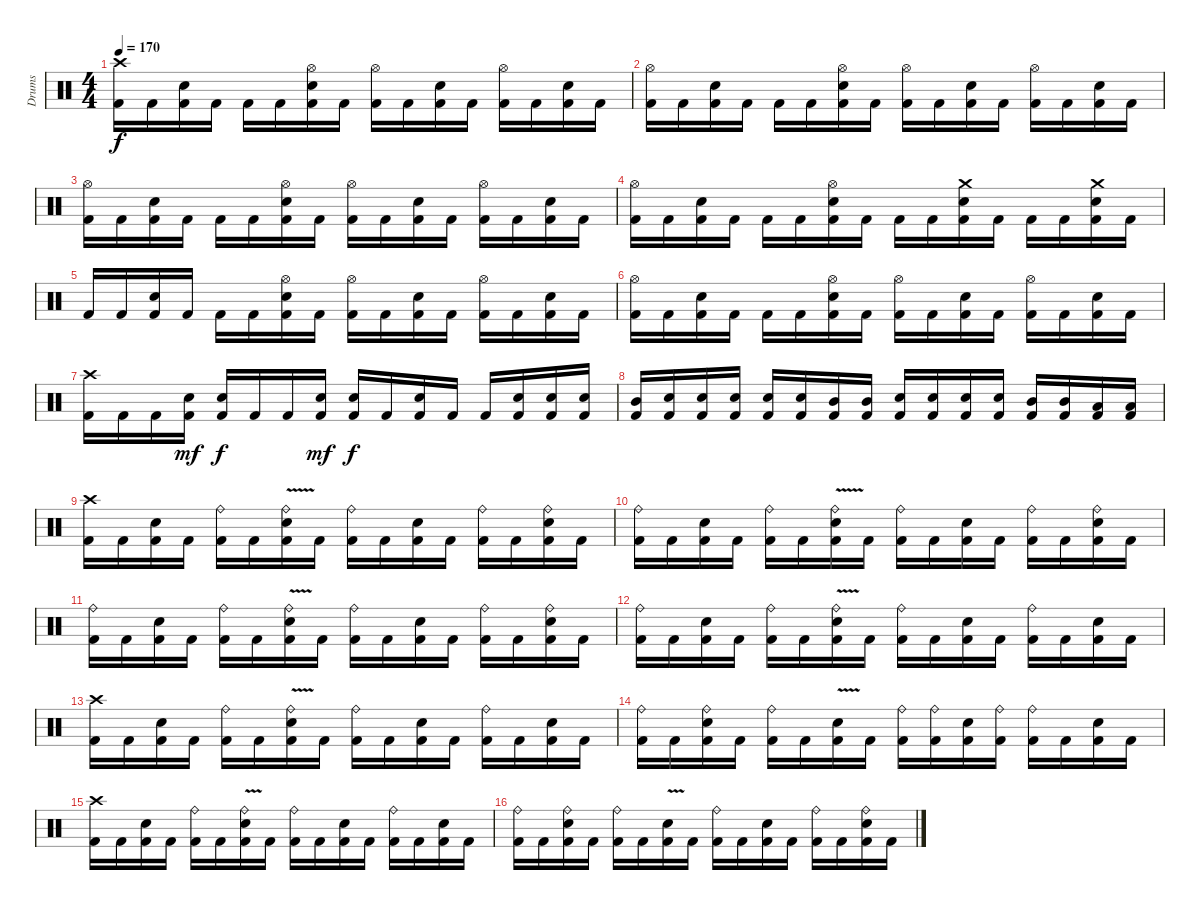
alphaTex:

\track ("Drums" "Drums") {instrument percussion}
\staff {score}
\articulation defaults
\ts (4 4)
\tempo 170
\clef neutral
\ks c
("Kick (hit) 2" "Crash high (hit)").16{dy f} "Kick (hit) 2".16 ("Kick (hit) 2" "Electric Snare (hit)").16 "Kick (hit) 2".16 "Kick (hit) 2".16 "Kick (hit) 2".16 ("Kick (hit) 2" "Electric Snare (hit)" "Hi-Hat (open)").16 "Kick (hit) 2".16 ("Kick (hit) 2" "Hi-Hat (open)").16 "Kick (hit) 2".16 ("Kick (hit) 2" "Electric Snare (hit)").16 "Kick (hit) 2".16 ("Kick (hit) 2" "Hi-Hat (open)").16 "Kick (hit) 2".16 ("Kick (hit) 2" "Electric Snare (hit)").16 "Kick (hit) 2".16 |
("Kick (hit) 2" "Hi-Hat (open)").16 "Kick (hit) 2".16 ("Kick (hit) 2" "Electric Snare (hit)").16 "Kick (hit) 2".16 "Kick (hit) 2".16 "Kick (hit) 2".16 ("Kick (hit) 2" "Electric Snare (hit)" "Hi-Hat (open)").16 "Kick (hit) 2".16 ("Kick (hit) 2" "Hi-Hat (open)").16 "Kick (hit) 2".16 ("Kick (hit) 2" "Electric Snare (hit)").16 "Kick (hit) 2".16 ("Kick (hit) 2" "Hi-Hat (open)").16 "Kick (hit) 2".16 ("Kick (hit) 2" "Electric Snare (hit)").16 "Kick (hit) 2".16 |
("Kick (hit) 2" "Hi-Hat (open)").16 "Kick (hit) 2".16 ("Kick (hit) 2" "Electric Snare (hit)").16 "Kick (hit) 2".16 "Kick (hit) 2".16 "Kick (hit) 2".16 ("Kick (hit) 2" "Electric Snare (hit)" "Hi-Hat (open)").16 "Kick (hit) 2".16 ("Kick (hit) 2" "Hi-Hat (open)").16 "Kick (hit) 2".16 ("Kick (hit) 2" "Electric Snare (hit)").16 "Kick (hit) 2".16 ("Kick (hit) 2" "Hi-Hat (open)").16 "Kick (hit) 2".16 ("Kick (hit) 2" "Electric Snare (hit)").16 "Kick (hit) 2".16 |
("Kick (hit) 2" "Hi-Hat (open)").16 "Kick (hit) 2".16 ("Kick (hit) 2" "Electric Snare (hit)").16 "Kick (hit) 2".16 "Kick (hit) 2".16 "Kick (hit) 2".16 ("Kick (hit) 2" "Electric Snare (hit)" "Hi-Hat (open)").16 "Kick (hit) 2".16 "Kick (hit) 2".16 "Kick (hit) 2".16 ("Kick (hit) 2" "Electric Snare (hit)" "Crash medium (hit)").16 "Kick (hit) 2".16 "Kick (hit) 2".16 "Kick (hit) 2".16 ("Kick (hit) 2" "Electric Snare (hit)" "Crash medium (hit)").16 "Kick (hit) 2".16 |
"Kick (hit) 2".16 "Kick (hit) 2".16 ("Kick (hit) 2" "Electric Snare (hit)").16 "Kick (hit) 2".16 "Kick (hit) 2".16 "Kick (hit) 2".16 ("Kick (hit) 2" "Electric Snare (hit)" "Hi-Hat (open)").16 "Kick (hit) 2".16 ("Kick (hit) 2" "Hi-Hat (open)").16 "Kick (hit) 2".16 ("Kick (hit) 2" "Electric Snare (hit)").16 "Kick (hit) 2".16 ("Kick (hit) 2" "Hi-Hat (open)").16 "Kick (hit) 2".16 ("Kick (hit) 2" "Electric Snare (hit)").16 "Kick (hit) 2".16 |
("Kick (hit) 2" "Hi-Hat (open)").16 "Kick (hit) 2".16 ("Kick (hit) 2" "Electric Snare (hit)").16 "Kick (hit) 2".16 "Kick (hit) 2".16 "Kick (hit) 2".16 ("Kick (hit) 2" "Electric Snare (hit)" "Hi-Hat (open)").16 "Kick (hit) 2".16 ("Kick (hit) 2" "Hi-Hat (open)").16 "Kick (hit) 2".16 ("Kick (hit) 2" "Electric Snare (hit)").16 "Kick (hit) 2".16 ("Kick (hit) 2" "Hi-Hat (open)").16 "Kick (hit) 2".16 ("Kick (hit) 2" "Electric Snare (hit)").16 "Kick (hit) 2".16 |
("Kick (hit) 2" "Crash high (hit)").16 "Kick (hit) 2".16 "Kick (hit) 2".16 ("Kick (hit) 2" "Electric Snare (hit)").16{dy mf} ("Kick (hit) 2" "Electric Snare (hit)").16{dy f} "Kick (hit) 2".16 "Kick (hit) 2".16 ("Kick (hit) 2" "Electric Snare (hit)").16{dy mf} ("Kick (hit) 2" "Electric Snare (hit)").16{dy f} "Kick (hit) 2".16 ("Kick (hit) 2" "Electric Snare (hit)").16 "Kick (hit) 2".16 "Kick (hit) 2".16 ("Kick (hit) 2" "Electric Snare (hit)").16 ("Kick (hit) 2" "Electric Snare (hit)").16 ("Kick (hit) 2" "Electric Snare (hit)").16 |
("Kick (hit) 2" "Mid Tom (hit)").16 ("Kick (hit) 2" "Electric Snare (hit)").16 ("Kick (hit) 2" "Electric Snare (hit)").16 ("Kick (hit) 2" "Electric Snare (hit)").16 ("Kick (hit) 2" "Electric Snare (hit)").16 ("Kick (hit) 2" "Electric Snare (hit)").16 ("Kick (hit) 2" "Mid Tom (hit)").16 ("Kick (hit) 2" "Mid Tom (hit)").16 ("Kick (hit) 2" "Electric Snare (hit)").16 ("Kick (hit) 2" "Electric Snare (hit)").16 ("Kick (hit) 2" "Electric Snare (hit)").16 ("Kick (hit) 2" "Electric Snare (hit)").16 ("Kick (hit) 2" "Mid Tom (hit)").16 ("Kick (hit) 2" "Mid Tom (hit)").16 ("Kick (hit) 2" "Low Tom (hit)").16 ("Kick (hit) 2" "Low Tom (hit)").16 |
("Kick (hit) 2" "Crash high (hit)").16 "Kick (hit) 2".16 ("Kick (hit) 2" "Electric Snare (hit)").16 "Kick (hit) 2".16 ("Kick (hit) 2" "Ride (bell)").16 "Kick (hit) 2".16 ("Kick (hit) 2" "Electric Snare (hit)"{v} "Ride (bell)").16 "Kick (hit) 2".16 ("Kick (hit) 2" "Ride (bell)").16 "Kick (hit) 2".16 ("Kick (hit) 2" "Electric Snare (hit)").16 "Kick (hit) 2".16 ("Kick (hit) 2" "Ride (bell)").16 "Kick (hit) 2".16 ("Kick (hit) 2" "Electric Snare (hit)" "Ride (bell)").16 "Kick (hit) 2".16 |
("Kick (hit) 2" "Ride (bell)").16 "Kick (hit) 2".16 ("Kick (hit) 2" "Electric Snare (hit)").16 "Kick (hit) 2".16 ("Kick (hit) 2" "Ride (bell)").16 "Kick (hit) 2".16 ("Kick (hit) 2" "Electric Snare (hit)"{v} "Ride (bell)").16 "Kick (hit) 2".16 ("Kick (hit) 2" "Ride (bell)").16 "Kick (hit) 2".16 ("Kick (hit) 2" "Electric Snare (hit)").16 "Kick (hit) 2".16 ("Kick (hit) 2" "Ride (bell)").16 "Kick (hit) 2".16 ("Kick (hit) 2" "Electric Snare (hit)" "Ride (bell)").16 "Kick (hit) 2".16 |
("Kick (hit) 2" "Ride (bell)").16 "Kick (hit) 2".16 ("Kick (hit) 2" "Electric Snare (hit)").16 "Kick (hit) 2".16 ("Kick (hit) 2" "Ride (bell)").16 "Kick (hit) 2".16 ("Kick (hit) 2" "Electric Snare (hit)"{v} "Ride (bell)").16 "Kick (hit) 2".16 ("Kick (hit) 2" "Ride (bell)").16 "Kick (hit) 2".16 ("Kick (hit) 2" "Electric Snare (hit)").16 "Kick (hit) 2".16 ("Kick (hit) 2" "Ride (bell)").16 "Kick (hit) 2".16 ("Kick (hit) 2" "Electric Snare (hit)" "Ride (bell)").16 "Kick (hit) 2".16 |
("Kick (hit) 2" "Ride (bell)").16 "Kick (hit) 2".16 ("Kick (hit) 2" "Electric Snare (hit)").16 "Kick (hit) 2".16 ("Kick (hit) 2" "Ride (bell)").16 "Kick (hit) 2".16 ("Kick (hit) 2" "Electric Snare (hit)"{v} "Ride (bell)").16 "Kick (hit) 2".16 ("Kick (hit) 2" "Ride (bell)").16 "Kick (hit) 2".16 ("Kick (hit) 2" "Electric Snare (hit)").16 "Kick (hit) 2".16 ("Kick (hit) 2" "Ride (bell)").16 "Kick (hit) 2".16 ("Kick (hit) 2" "Electric Snare (hit)").16 "Kick (hit) 2".16 |
("Kick (hit) 2" "Crash high (hit)").16 "Kick (hit) 2".16 ("Kick (hit) 2" "Electric Snare (hit)").16 "Kick (hit) 2".16 ("Kick (hit) 2" "Ride (bell)").16 "Kick (hit) 2".16 ("Kick (hit) 2" "Electric Snare (hit)"{v} "Ride (bell)").16 "Kick (hit) 2".16 ("Kick (hit) 2" "Ride (bell)").16 "Kick (hit) 2".16 ("Kick (hit) 2" "Electric Snare (hit)").16 "Kick (hit) 2".16 ("Kick (hit) 2" "Ride (bell)").16 "Kick (hit) 2".16 ("Kick (hit) 2" "Electric Snare (hit)").16 "Kick (hit) 2".16 |
("Kick (hit) 2" "Ride (bell)").16 "Kick (hit) 2".16 ("Kick (hit) 2" "Electric Snare (hit)" "Ride (bell)").16 "Kick (hit) 2".16 ("Kick (hit) 2" "Ride (bell)").16 "Kick (hit) 2".16 ("Kick (hit) 2" "Electric Snare (hit)"{v}).16 "Kick (hit) 2".16 ("Kick (hit) 2" "Ride (bell)").16 ("Kick (hit) 2" "Ride (bell)").16 ("Kick (hit) 2" "Electric Snare (hit)").16 ("Kick (hit) 2" "Ride (bell)").16 ("Kick (hit) 2" "Ride (bell)").16 "Kick (hit) 2".16 ("Kick (hit) 2" "Electric Snare (hit)").16 "Kick (hit) 2".16 |
("Kick (hit) 2" "Crash high (hit)").16 "Kick (hit) 2".16 ("Kick (hit) 2" "Electric Snare (hit)").16 "Kick (hit) 2".16 ("Kick (hit) 2" "Ride (bell)").16 "Kick (hit) 2".16 ("Kick (hit) 2" "Electric Snare (hit)"{v} "Ride (bell)").16 "Kick (hit) 2".16 ("Kick (hit) 2" "Ride (bell)").16 "Kick (hit) 2".16 ("Kick (hit) 2" "Electric Snare (hit)").16 "Kick (hit) 2".16 ("Kick (hit) 2" "Ride (bell)").16 "Kick (hit) 2".16 ("Kick (hit) 2" "Electric Snare (hit)").16 "Kick (hit) 2".16 |
("Kick (hit) 2" "Ride (bell)").16 "Kick (hit) 2".16 ("Kick (hit) 2" "Electric Snare (hit)" "Ride (bell)").16 "Kick (hit) 2".16 ("Kick (hit) 2" "Ride (bell)").16 "Kick (hit) 2".16 ("Kick (hit) 2" "Electric Snare (hit)"{v}).16 "Kick (hit) 2".16 ("Kick (hit) 2" "Ride (bell)").16 "Kick (hit) 2".16 ("Kick (hit) 2" "Electric Snare (hit)").16 "Kick (hit) 2".16 ("Kick (hit) 2" "Ride (bell)").16 "Kick (hit) 2".16 ("Kick (hit) 2" "Electric Snare (hit)" "Ride (bell)").16 "Kick (hit) 2".16
